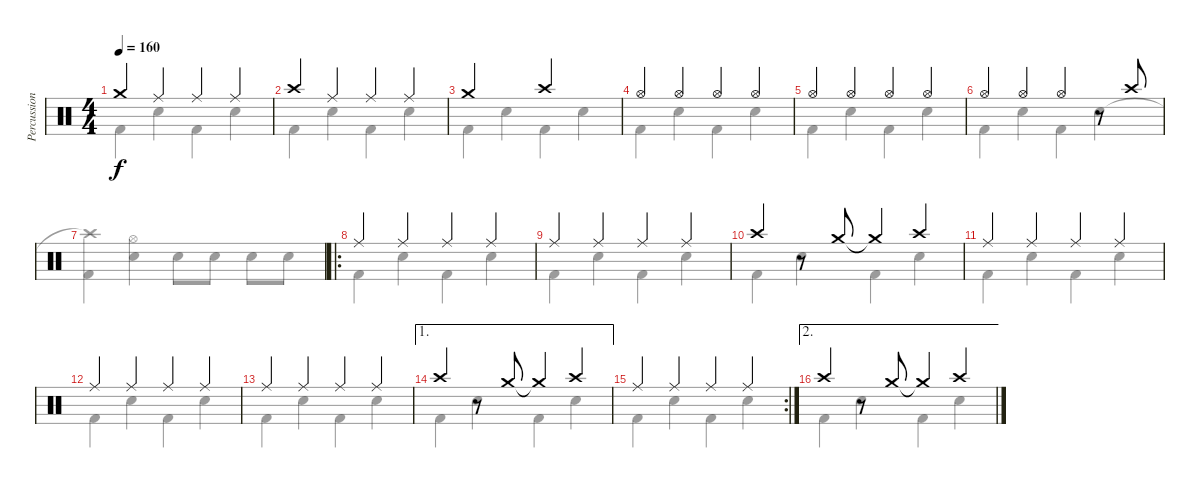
\track ("Percussion" "Percussion") {instrument percussion}
\staff {score}
\articulation defaults
\voice
\ts (4 4)
\tempo 160
\clef neutral
\ks c "Crash medium (hit)".4{dy f} "Ride (middle)".4 "Ride (middle)".4 "Ride (middle)".4
|
"Crash high (hit)".4 "Ride (middle)".4 "Ride (middle)".4 "Ride (middle)".4 |
"Crash medium (hit)".2 "Crash high (hit)".2 |
"Hi-Hat (open)".4 "Hi-Hat (open)".4 "Hi-Hat (open)".4 "Hi-Hat (open)".4 |
"Hi-Hat (open)".4 "Hi-Hat (open)".4 "Hi-Hat (open)".4 "Hi-Hat (open)".4 |
"Hi-Hat (open)".4 "Hi-Hat (open)".4 "Hi-Hat (open)".4 r.8 "Crash high (hit)".8 |
|
\ro "Ride (middle)".4 "Ride (middle)".4 "Ride (middle)".4 "Ride (middle)".4
|
"Ride (middle)".4 "Ride (middle)".4 "Ride (middle)".4 "Ride (middle)".4 |
"Crash high (hit)".4 r.8 "Crash medium (hit)".8 "Crash medium (hit)"{t}.4 "Crash high (hit)".4 |
"Ride (middle)".4 "Ride (middle)".4 "Ride (middle)".4 "Ride (middle)".4 |
"Ride (middle)".4 "Ride (middle)".4 "Ride (middle)".4 "Ride (middle)".4 |
"Ride (middle)".4 "Ride (middle)".4 "Ride (middle)".4 "Ride (middle)".4 |
\ae 1 "Crash high (hit)".4
r.8 "Crash medium (hit)".8 "Crash medium (hit)"{t}.4 "Crash high (hit)".4 |
\rc 2 "Ride (middle)".4 "Ride (middle)".4 "Ride (middle)".4 "Ride (middle)".4
|
\ae 2 "Crash high (hit)".4
r.8 "Crash medium (hit)".8 "Crash medium (hit)"{t}.4 "Crash high (hit)".4
\voice
\clef neutral
\ottava regular
\simile none
\ks c "Kick (hit) 2".4{dy f} "Snare (hit) 2".4 "Kick (hit) 2".4 "Snare (hit) 2".4
|
"Kick (hit) 2".4 "Snare (hit) 2".4 "Kick (hit) 2".4 "Snare (hit) 2".4 |
"Kick (hit) 2".4 "Snare (hit) 2".4 "Kick (hit) 2".4 "Snare (hit) 2".4 |
"Kick (hit) 2".4 "Snare (hit) 2".4 "Kick (hit) 2".4 "Snare (hit) 2".4 |
"Kick (hit) 2".4 "Snare (hit) 2".4 "Kick (hit) 2".4 "Snare (hit) 2".4 |
"Kick (hit) 2".4 "Snare (hit) 2".4 "Kick (hit) 2".4 "Snare (hit) 2".4 |
("Crash high (hit)"{t} "Kick (hit) 2").4 ("Hi-Hat (open)" "Snare (hit) 2").4 "Snare (hit) 2".8 "Snare (hit) 2".8 "Snare (hit) 2".8 "Snare (hit) 2".8 |
"Kick (hit) 2".4 "Snare (hit) 2".4 "Kick (hit) 2".4 "Snare (hit) 2".4 |
"Kick (hit) 2".4 "Snare (hit) 2".4 "Kick (hit) 2".4 "Snare (hit) 2".4 |
"Kick (hit) 2".4 "Snare (hit) 2".4 "Kick (hit) 2".4 "Snare (hit) 2".4 |
"Kick (hit) 2".4 "Snare (hit) 2".4 "Kick (hit) 2".4 "Snare (hit) 2".4 |
"Kick (hit) 2".4 "Snare (hit) 2".4 "Kick (hit) 2".4 "Snare (hit) 2".4 |
"Kick (hit) 2".4 "Snare (hit) 2".4 "Kick (hit) 2".4 "Snare (hit) 2".4 |
"Kick (hit) 2".4 "Snare (hit) 2".4 "Kick (hit) 2".4 "Snare (hit) 2".4 |
"Kick (hit) 2".4 "Snare (hit) 2".4 "Kick (hit) 2".4 "Snare (hit) 2".4 |
"Kick (hit) 2".4 "Snare (hit) 2".4 "Kick (hit) 2".4 "Snare (hit) 2".4
